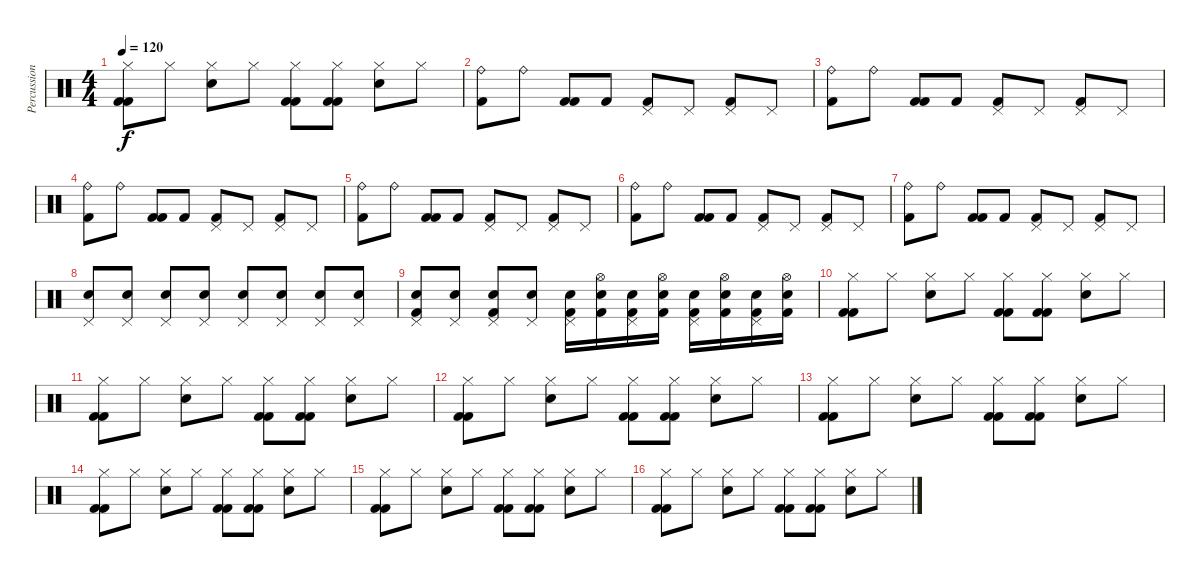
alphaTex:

\track ("Percussion" "Percussion") {instrument percussion}
\staff {score}
\articulation defaults
\ts (4 4)
\tempo 120
\clef neutral
\ks c
("Kick (hit) 2" "Hi-Hat (closed)" "Kick (hit) 2").8{dy f} "Hi-Hat (closed)".8 ("Snare (hit) 2" "Hi-Hat (closed)").8 "Hi-Hat (closed)".8 ("Kick (hit) 2" "Hi-Hat (closed)" "Kick (hit) 2").8 ("Kick (hit) 2" "Hi-Hat (closed)" "Kick (hit) 2").8 ("Snare (hit) 2" "Hi-Hat (closed)").8 "Hi-Hat (closed)".8 |
("Ride (bell)" "Kick (hit) 2").8 "Ride (bell)".8 ("Kick (hit) 2" "Kick (hit) 2").8 "Kick (hit) 2".8 ("Pedal Hi-Hat (hit)" "Kick (hit) 2").8 "Pedal Hi-Hat (hit)".8 ("Pedal Hi-Hat (hit)" "Kick (hit) 2").8 "Pedal Hi-Hat (hit)".8 |
("Ride (bell)" "Kick (hit) 2").8 "Ride (bell)".8 ("Kick (hit) 2" "Kick (hit) 2").8 "Kick (hit) 2".8 ("Pedal Hi-Hat (hit)" "Kick (hit) 2").8 "Pedal Hi-Hat (hit)".8 ("Pedal Hi-Hat (hit)" "Kick (hit) 2").8 "Pedal Hi-Hat (hit)".8 |
("Ride (bell)" "Kick (hit) 2").8 "Ride (bell)".8 ("Kick (hit) 2" "Kick (hit) 2").8 "Kick (hit) 2".8 ("Pedal Hi-Hat (hit)" "Kick (hit) 2").8 "Pedal Hi-Hat (hit)".8 ("Pedal Hi-Hat (hit)" "Kick (hit) 2").8 "Pedal Hi-Hat (hit)".8 |
("Ride (bell)" "Kick (hit) 2").8 "Ride (bell)".8 ("Kick (hit) 2" "Kick (hit) 2").8 "Kick (hit) 2".8 ("Pedal Hi-Hat (hit)" "Kick (hit) 2").8 "Pedal Hi-Hat (hit)".8 ("Pedal Hi-Hat (hit)" "Kick (hit) 2").8 "Pedal Hi-Hat (hit)".8 |
("Ride (bell)" "Kick (hit) 2").8 "Ride (bell)".8 ("Kick (hit) 2" "Kick (hit) 2").8 "Kick (hit) 2".8 ("Pedal Hi-Hat (hit)" "Kick (hit) 2").8 "Pedal Hi-Hat (hit)".8 ("Pedal Hi-Hat (hit)" "Kick (hit) 2").8 "Pedal Hi-Hat (hit)".8 |
("Ride (bell)" "Kick (hit) 2").8 "Ride (bell)".8 ("Kick (hit) 2" "Kick (hit) 2").8 "Kick (hit) 2".8 ("Pedal Hi-Hat (hit)" "Kick (hit) 2").8 "Pedal Hi-Hat (hit)".8 ("Pedal Hi-Hat (hit)" "Kick (hit) 2").8 "Pedal Hi-Hat (hit)".8 |
("Pedal Hi-Hat (hit)" "Snare (hit) 2").8 ("Pedal Hi-Hat (hit)" "Snare (hit) 2").8 ("Pedal Hi-Hat (hit)" "Snare (hit) 2").8 ("Pedal Hi-Hat (hit)" "Snare (hit) 2").8 ("Pedal Hi-Hat (hit)" "Snare (hit) 2").8 ("Pedal Hi-Hat (hit)" "Snare (hit) 2").8 ("Pedal Hi-Hat (hit)" "Snare (hit) 2").8 ("Pedal Hi-Hat (hit)" "Snare (hit) 2").8 |
("Pedal Hi-Hat (hit)" "Snare (hit) 2" "Kick (hit) 2").8 ("Pedal Hi-Hat (hit)" "Snare (hit) 2").8 ("Pedal Hi-Hat (hit)" "Snare (hit) 2" "Kick (hit) 2").8 ("Pedal Hi-Hat (hit)" "Snare (hit) 2").8 ("Pedal Hi-Hat (hit)" "Snare (hit) 2" "Kick (hit) 2").16 ("Hi-Hat (open)" "Snare (hit) 2" "Kick (hit) 2").16 ("Pedal Hi-Hat (hit)" "Snare (hit) 2" "Kick (hit) 2").16 ("Hi-Hat (open)" "Snare (hit) 2" "Kick (hit) 2").16 ("Pedal Hi-Hat (hit)" "Snare (hit) 2" "Kick (hit) 2").16 ("Hi-Hat (open)" "Snare (hit) 2" "Kick (hit) 2").16 ("Pedal Hi-Hat (hit)" "Snare (hit) 2" "Kick (hit) 2").16 ("Hi-Hat (open)" "Snare (hit) 2" "Kick (hit) 2").16 |
("Kick (hit) 2" "Hi-Hat (closed)" "Kick (hit) 2").8 "Hi-Hat (closed)".8 ("Snare (hit) 2" "Hi-Hat (closed)").8 "Hi-Hat (closed)".8 ("Kick (hit) 2" "Hi-Hat (closed)" "Kick (hit) 2").8 ("Kick (hit) 2" "Hi-Hat (closed)" "Kick (hit) 2").8 ("Snare (hit) 2" "Hi-Hat (closed)").8 "Hi-Hat (closed)".8 |
("Kick (hit) 2" "Hi-Hat (closed)" "Kick (hit) 2").8 "Hi-Hat (closed)".8 ("Snare (hit) 2" "Hi-Hat (closed)").8 "Hi-Hat (closed)".8 ("Kick (hit) 2" "Hi-Hat (closed)" "Kick (hit) 2").8 ("Kick (hit) 2" "Hi-Hat (closed)" "Kick (hit) 2").8 ("Snare (hit) 2" "Hi-Hat (closed)").8 "Hi-Hat (closed)".8 |
("Kick (hit) 2" "Hi-Hat (closed)" "Kick (hit) 2").8 "Hi-Hat (closed)".8 ("Snare (hit) 2" "Hi-Hat (closed)").8 "Hi-Hat (closed)".8 ("Kick (hit) 2" "Hi-Hat (closed)" "Kick (hit) 2").8 ("Kick (hit) 2" "Hi-Hat (closed)" "Kick (hit) 2").8 ("Snare (hit) 2" "Hi-Hat (closed)").8 "Hi-Hat (closed)".8 |
("Kick (hit) 2" "Hi-Hat (closed)" "Kick (hit) 2").8 "Hi-Hat (closed)".8 ("Snare (hit) 2" "Hi-Hat (closed)").8 "Hi-Hat (closed)".8 ("Kick (hit) 2" "Hi-Hat (closed)" "Kick (hit) 2").8 ("Kick (hit) 2" "Hi-Hat (closed)" "Kick (hit) 2").8 ("Snare (hit) 2" "Hi-Hat (closed)").8 "Hi-Hat (closed)".8 |
("Kick (hit) 2" "Hi-Hat (closed)" "Kick (hit) 2").8 "Hi-Hat (closed)".8 ("Snare (hit) 2" "Hi-Hat (closed)").8 "Hi-Hat (closed)".8 ("Kick (hit) 2" "Hi-Hat (closed)" "Kick (hit) 2").8 ("Kick (hit) 2" "Hi-Hat (closed)" "Kick (hit) 2").8 ("Snare (hit) 2" "Hi-Hat (closed)").8 "Hi-Hat (closed)".8 |
("Kick (hit) 2" "Hi-Hat (closed)" "Kick (hit) 2").8 "Hi-Hat (closed)".8 ("Snare (hit) 2" "Hi-Hat (closed)").8 "Hi-Hat (closed)".8 ("Kick (hit) 2" "Hi-Hat (closed)" "Kick (hit) 2").8 ("Kick (hit) 2" "Hi-Hat (closed)" "Kick (hit) 2").8 ("Snare (hit) 2" "Hi-Hat (closed)").8 "Hi-Hat (closed)".8 |
("Kick (hit) 2" "Hi-Hat (closed)" "Kick (hit) 2").8 "Hi-Hat (closed)".8 ("Snare (hit) 2" "Hi-Hat (closed)").8 "Hi-Hat (closed)".8 ("Kick (hit) 2" "Hi-Hat (closed)" "Kick (hit) 2").8 ("Kick (hit) 2" "Hi-Hat (closed)" "Kick (hit) 2").8 ("Snare (hit) 2" "Hi-Hat (closed)").8 "Hi-Hat (closed)".8
